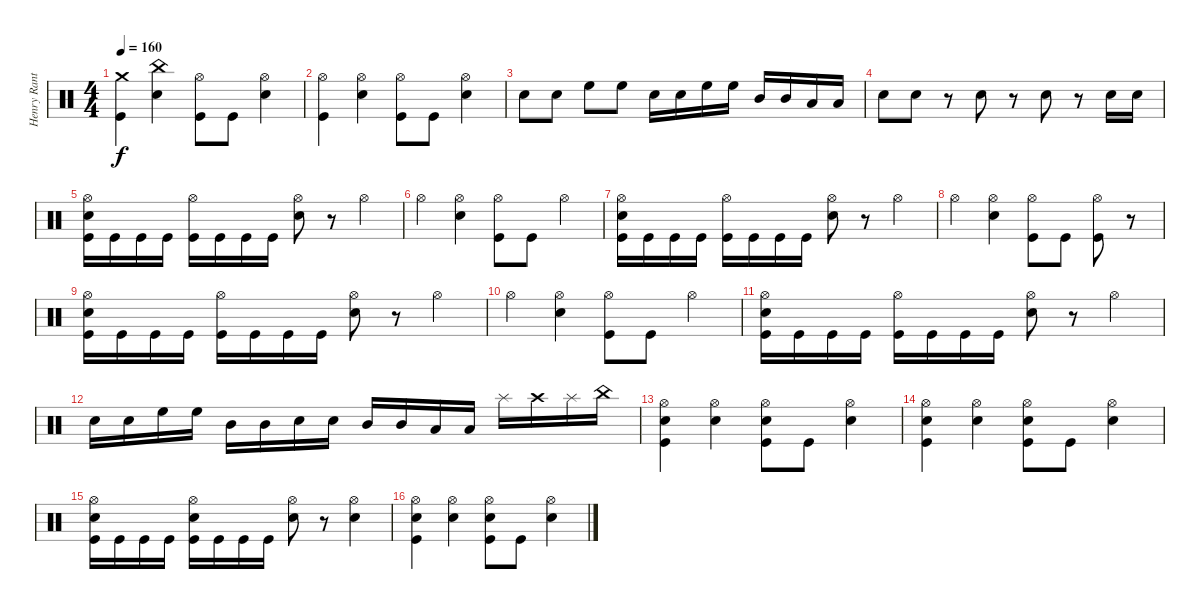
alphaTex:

\track ("Henry Ranta" "Henry Rant") {instrument percussion}
\staff {score}
\articulation defaults
\ts (4 4)
\tempo 160
\clef neutral
\ks c
("Crash medium (hit)" "Kick (hit)").4{dy f} ("China (hit)" "Snare (hit) 2").4 ("Hi-Hat (open)" "Kick (hit)").8 "Kick (hit)".8 ("Hi-Hat (open)" "Snare (hit) 2").4 |
("Hi-Hat (open)" "Kick (hit)").4 ("Hi-Hat (open)" "Snare (hit) 2").4 ("Hi-Hat (open)" "Kick (hit)").8 "Kick (hit)".8 ("Hi-Hat (open)" "Snare (hit) 2").4 |
"Snare (hit) 2".8 "Snare (hit) 2".8 "High Floor Tom (hit)".8 "High Floor Tom (hit)".8 "Snare (hit) 2".16 "Snare (hit) 2".16 "High Floor Tom (hit)".16 "High Floor Tom (hit)".16 "Mid Tom (hit)".16 "Mid Tom (hit)".16 "Low Tom (hit)".16 "Low Tom (hit)".16 |
"Snare (hit) 2".8 "Snare (hit) 2".8 r.8 "Snare (hit) 2".8 r.8 "Snare (hit) 2".8 r.8 "Snare (hit) 2".16 "Snare (hit) 2".16 |
("Hi-Hat (open)" "Snare (hit) 2" "Kick (hit)").16 "Kick (hit)".16 "Kick (hit)".16 "Kick (hit)".16 ("Hi-Hat (open)" "Kick (hit)").16 "Kick (hit)".16 "Kick (hit)".16 "Kick (hit)".16 ("Hi-Hat (open)" "Snare (hit) 2").8 r.8 "Hi-Hat (open)".4 |
"Hi-Hat (open)".4 ("Hi-Hat (open)" "Snare (hit) 2").4 ("Hi-Hat (open)" "Kick (hit)").8 "Kick (hit)".8 "Hi-Hat (open)".4 |
("Hi-Hat (open)" "Snare (hit) 2" "Kick (hit)").16 "Kick (hit)".16 "Kick (hit)".16 "Kick (hit)".16 ("Hi-Hat (open)" "Kick (hit)").16 "Kick (hit)".16 "Kick (hit)".16 "Kick (hit)".16 ("Hi-Hat (open)" "Snare (hit) 2").8 r.8 "Hi-Hat (open)".4 |
"Hi-Hat (open)".4 ("Hi-Hat (open)" "Snare (hit) 2").4 ("Hi-Hat (open)" "Kick (hit)").8 "Kick (hit)".8 ("Hi-Hat (open)" "Kick (hit)").8 r.8 |
("Hi-Hat (open)" "Snare (hit) 2" "Kick (hit)").16 "Kick (hit)".16 "Kick (hit)".16 "Kick (hit)".16 ("Hi-Hat (open)" "Kick (hit)").16 "Kick (hit)".16 "Kick (hit)".16 "Kick (hit)".16 ("Hi-Hat (open)" "Snare (hit) 2").8 r.8 "Hi-Hat (open)".4 |
"Hi-Hat (open)".4 ("Hi-Hat (open)" "Snare (hit) 2").4 ("Hi-Hat (open)" "Kick (hit)").8 "Kick (hit)".8 "Hi-Hat (open)".4 |
("Hi-Hat (open)" "Snare (hit) 2" "Kick (hit)").16 "Kick (hit)".16 "Kick (hit)".16 "Kick (hit)".16 ("Hi-Hat (open)" "Kick (hit)").16 "Kick (hit)".16 "Kick (hit)".16 "Kick (hit)".16 ("Hi-Hat (open)" "Snare (hit) 2").8 r.8 "Hi-Hat (open)".4 |
"Snare (hit) 2".16 "Snare (hit) 2".16 "High Floor Tom (hit)".16 "High Floor Tom (hit)".16 "Mid Tom (hit)".16 "Mid Tom (hit)".16 "Snare (hit) 2".16 "Snare (hit) 2".16 "Mid Tom (hit)".16 "Mid Tom (hit)".16 "Low Tom (hit)".16 "Low Tom (hit)".16 "Splash (hit)".16 "Crash high (hit)".16 "Splash (hit)".16 "China (hit)".16 |
("Hi-Hat (open)" "Snare (hit) 2" "Kick (hit)").4 ("Hi-Hat (open)" "Snare (hit) 2").4 ("Hi-Hat (open)" "Snare (hit) 2" "Kick (hit)").8 "Kick (hit)".8 ("Hi-Hat (open)" "Snare (hit) 2").4 |
("Hi-Hat (open)" "Snare (hit) 2" "Kick (hit)").4 ("Hi-Hat (open)" "Snare (hit) 2").4 ("Hi-Hat (open)" "Snare (hit) 2" "Kick (hit)").8 "Kick (hit)".8 ("Hi-Hat (open)" "Snare (hit) 2").4 |
("Hi-Hat (open)" "Snare (hit) 2" "Kick (hit)").16 "Kick (hit)".16 "Kick (hit)".16 "Kick (hit)".16 ("Hi-Hat (open)" "Snare (hit) 2" "Kick (hit)").16 "Kick (hit)".16 "Kick (hit)".16 "Kick (hit)".16 ("Hi-Hat (open)" "Snare (hit) 2").8 r.8 ("Hi-Hat (open)" "Snare (hit) 2").4 |
("Hi-Hat (open)" "Snare (hit) 2" "Kick (hit)").4 ("Hi-Hat (open)" "Snare (hit) 2").4 ("Hi-Hat (open)" "Snare (hit) 2" "Kick (hit)").8 "Kick (hit)".8 ("Hi-Hat (open)" "Snare (hit) 2").4
